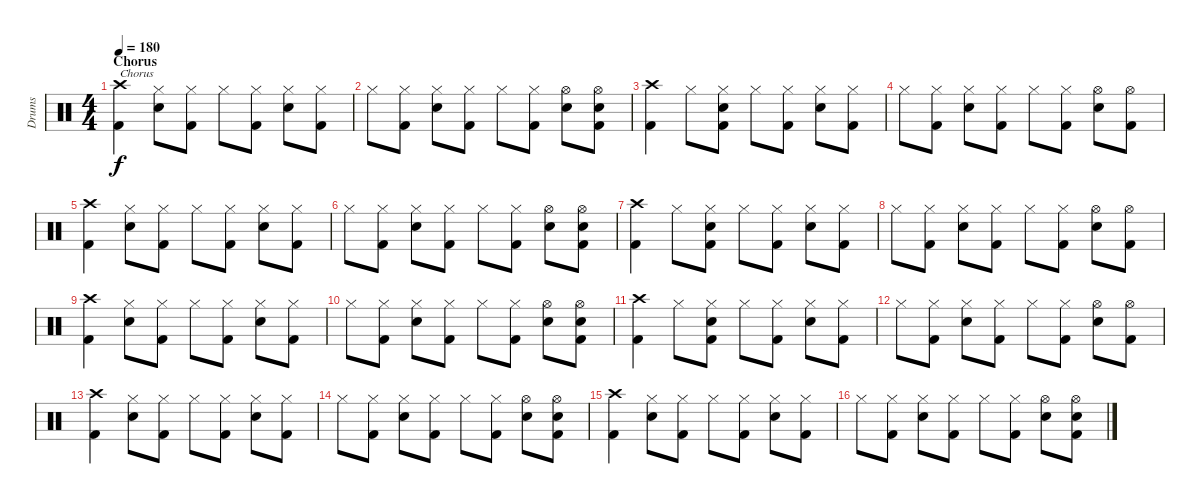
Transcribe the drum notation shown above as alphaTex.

\track ("Drums" "Drums") {instrument percussion}
\staff {score}
\articulation defaults
\ts (4 4)
\section ("" "Chorus")
\tempo 180
\clef neutral
\ks c
("Crash high (hit)" "Kick (hit) 2").4{txt "Chorus" dy f} ("Hi-Hat (closed)" "Electric Snare (hit)").8 ("Hi-Hat (closed)" "Kick (hit) 2").8 "Hi-Hat (closed)".8 ("Hi-Hat (closed)" "Kick (hit) 2").8 ("Hi-Hat (closed)" "Electric Snare (hit)").8 ("Hi-Hat (closed)" "Kick (hit) 2").8 |
"Hi-Hat (closed)".8 ("Hi-Hat (closed)" "Kick (hit) 2").8 ("Hi-Hat (closed)" "Electric Snare (hit)").8 ("Hi-Hat (closed)" "Kick (hit) 2").8 "Hi-Hat (closed)".8 ("Hi-Hat (closed)" "Kick (hit) 2").8 ("Hi-Hat (open)" "Electric Snare (hit)").8 ("Hi-Hat (open)" "Electric Snare (hit)" "Kick (hit) 2").8 |
("Crash high (hit)" "Kick (hit) 2").4 "Hi-Hat (closed)".8 ("Hi-Hat (closed)" "Electric Snare (hit)" "Kick (hit) 2").8 "Hi-Hat (closed)".8 ("Hi-Hat (closed)" "Kick (hit) 2").8 ("Hi-Hat (closed)" "Electric Snare (hit)").8 ("Hi-Hat (closed)" "Kick (hit) 2").8 |
"Hi-Hat (closed)".8 ("Hi-Hat (closed)" "Kick (hit) 2").8 ("Hi-Hat (closed)" "Electric Snare (hit)").8 ("Hi-Hat (closed)" "Kick (hit) 2").8 "Hi-Hat (closed)".8 ("Hi-Hat (closed)" "Kick (hit) 2").8 ("Hi-Hat (open)" "Electric Snare (hit)").8 ("Hi-Hat (open)" "Kick (hit) 2").8 |
("Crash high (hit)" "Kick (hit) 2").4 ("Hi-Hat (closed)" "Electric Snare (hit)").8 ("Hi-Hat (closed)" "Kick (hit) 2").8 "Hi-Hat (closed)".8 ("Hi-Hat (closed)" "Kick (hit) 2").8 ("Hi-Hat (closed)" "Electric Snare (hit)").8 ("Hi-Hat (closed)" "Kick (hit) 2").8 |
"Hi-Hat (closed)".8 ("Hi-Hat (closed)" "Kick (hit) 2").8 ("Hi-Hat (closed)" "Electric Snare (hit)").8 ("Hi-Hat (closed)" "Kick (hit) 2").8 "Hi-Hat (closed)".8 ("Hi-Hat (closed)" "Kick (hit) 2").8 ("Hi-Hat (open)" "Electric Snare (hit)").8 ("Hi-Hat (open)" "Electric Snare (hit)" "Kick (hit) 2").8 |
("Crash high (hit)" "Kick (hit) 2").4 "Hi-Hat (closed)".8 ("Hi-Hat (closed)" "Electric Snare (hit)" "Kick (hit) 2").8 "Hi-Hat (closed)".8 ("Hi-Hat (closed)" "Kick (hit) 2").8 ("Hi-Hat (closed)" "Electric Snare (hit)").8 ("Hi-Hat (closed)" "Kick (hit) 2").8 |
"Hi-Hat (closed)".8 ("Hi-Hat (closed)" "Kick (hit) 2").8 ("Hi-Hat (closed)" "Electric Snare (hit)").8 ("Hi-Hat (closed)" "Kick (hit) 2").8 "Hi-Hat (closed)".8 ("Hi-Hat (closed)" "Kick (hit) 2").8 ("Hi-Hat (open)" "Electric Snare (hit)").8 ("Hi-Hat (open)" "Kick (hit) 2").8 |
("Crash high (hit)" "Kick (hit) 2").4 ("Hi-Hat (closed)" "Electric Snare (hit)").8 ("Hi-Hat (closed)" "Kick (hit) 2").8 "Hi-Hat (closed)".8 ("Hi-Hat (closed)" "Kick (hit) 2").8 ("Hi-Hat (closed)" "Electric Snare (hit)").8 ("Hi-Hat (closed)" "Kick (hit) 2").8 |
"Hi-Hat (closed)".8 ("Hi-Hat (closed)" "Kick (hit) 2").8 ("Hi-Hat (closed)" "Electric Snare (hit)").8 ("Hi-Hat (closed)" "Kick (hit) 2").8 "Hi-Hat (closed)".8 ("Hi-Hat (closed)" "Kick (hit) 2").8 ("Hi-Hat (open)" "Electric Snare (hit)").8 ("Hi-Hat (open)" "Electric Snare (hit)" "Kick (hit) 2").8 |
("Crash high (hit)" "Kick (hit) 2").4 "Hi-Hat (closed)".8 ("Hi-Hat (closed)" "Electric Snare (hit)" "Kick (hit) 2").8 "Hi-Hat (closed)".8 ("Hi-Hat (closed)" "Kick (hit) 2").8 ("Hi-Hat (closed)" "Electric Snare (hit)").8 ("Hi-Hat (closed)" "Kick (hit) 2").8 |
"Hi-Hat (closed)".8 ("Hi-Hat (closed)" "Kick (hit) 2").8 ("Hi-Hat (closed)" "Electric Snare (hit)").8 ("Hi-Hat (closed)" "Kick (hit) 2").8 "Hi-Hat (closed)".8 ("Hi-Hat (closed)" "Kick (hit) 2").8 ("Hi-Hat (open)" "Electric Snare (hit)").8 ("Hi-Hat (open)" "Kick (hit) 2").8 |
("Crash high (hit)" "Kick (hit) 2").4 ("Hi-Hat (closed)" "Electric Snare (hit)").8 ("Hi-Hat (closed)" "Kick (hit) 2").8 "Hi-Hat (closed)".8 ("Hi-Hat (closed)" "Kick (hit) 2").8 ("Hi-Hat (closed)" "Electric Snare (hit)").8 ("Hi-Hat (closed)" "Kick (hit) 2").8 |
"Hi-Hat (closed)".8 ("Hi-Hat (closed)" "Kick (hit) 2").8 ("Hi-Hat (closed)" "Electric Snare (hit)").8 ("Hi-Hat (closed)" "Kick (hit) 2").8 "Hi-Hat (closed)".8 ("Hi-Hat (closed)" "Kick (hit) 2").8 ("Hi-Hat (open)" "Electric Snare (hit)").8 ("Hi-Hat (open)" "Electric Snare (hit)" "Kick (hit) 2").8 |
("Crash high (hit)" "Kick (hit) 2").4 ("Hi-Hat (closed)" "Electric Snare (hit)").8 ("Hi-Hat (closed)" "Kick (hit) 2").8 "Hi-Hat (closed)".8 ("Hi-Hat (closed)" "Kick (hit) 2").8 ("Hi-Hat (closed)" "Electric Snare (hit)").8 ("Hi-Hat (closed)" "Kick (hit) 2").8 |
"Hi-Hat (closed)".8 ("Hi-Hat (closed)" "Kick (hit) 2").8 ("Hi-Hat (closed)" "Electric Snare (hit)").8 ("Hi-Hat (closed)" "Kick (hit) 2").8 "Hi-Hat (closed)".8 ("Hi-Hat (closed)" "Kick (hit) 2").8 ("Hi-Hat (open)" "Electric Snare (hit)").8 ("Hi-Hat (open)" "Electric Snare (hit)" "Kick (hit) 2").8
